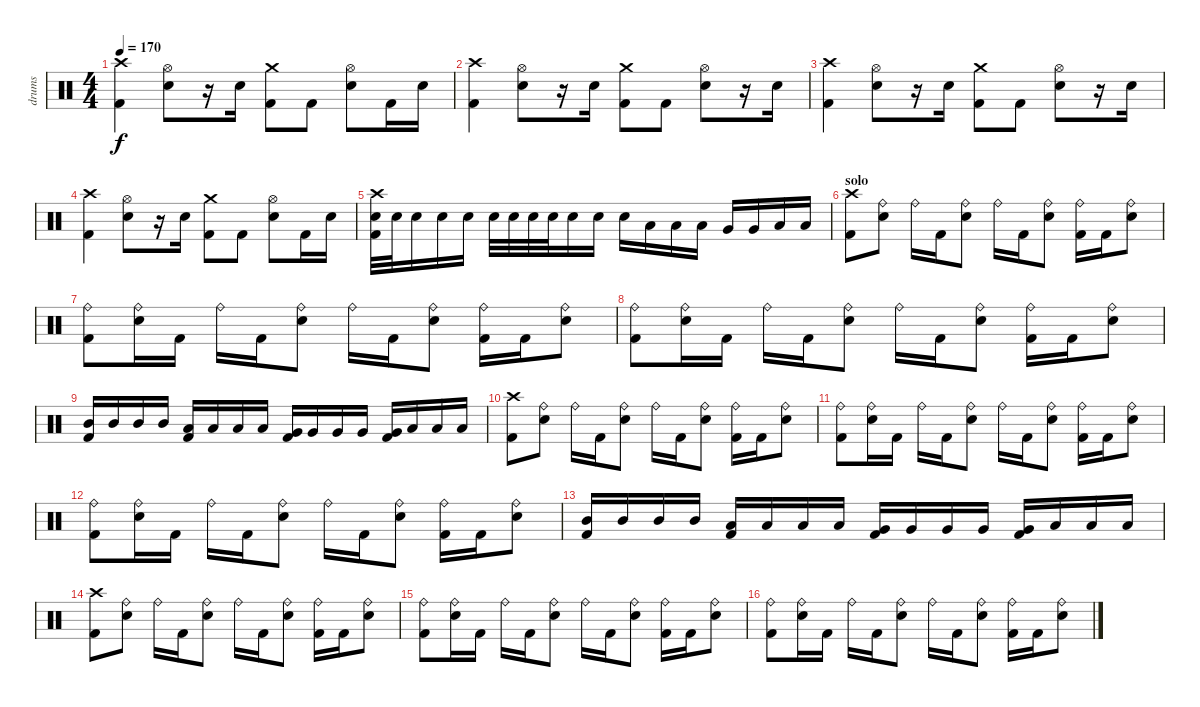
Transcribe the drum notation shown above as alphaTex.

\track ("drums" "drums") {instrument percussion}
\staff {score}
\articulation defaults
\ts (4 4)
\tempo 170
\clef neutral
\ks c
("Crash high (hit)" "Kick (hit) 2").4{dy f} ("Hi-Hat (open)" "Electric Snare (hit)").8 r.16 "Electric Snare (hit)".16 ("Crash medium (hit)" "Kick (hit) 2").8 "Kick (hit) 2".8 ("Hi-Hat (open)" "Electric Snare (hit)").8 "Kick (hit) 2".16 "Electric Snare (hit)".16 |
("Crash high (hit)" "Kick (hit) 2").4 ("Hi-Hat (open)" "Electric Snare (hit)").8 r.16 "Electric Snare (hit)".16 ("Crash medium (hit)" "Kick (hit) 2").8 "Kick (hit) 2".8 ("Hi-Hat (open)" "Electric Snare (hit)").8 r.16 "Electric Snare (hit)".16 |
("Crash high (hit)" "Kick (hit) 2").4 ("Hi-Hat (open)" "Electric Snare (hit)").8 r.16 "Electric Snare (hit)".16 ("Crash medium (hit)" "Kick (hit) 2").8 "Kick (hit) 2".8 ("Hi-Hat (open)" "Electric Snare (hit)").8 r.16 "Electric Snare (hit)".16 |
("Crash high (hit)" "Kick (hit) 2").4 ("Hi-Hat (open)" "Electric Snare (hit)").8 r.16 "Electric Snare (hit)".16 ("Crash medium (hit)" "Kick (hit) 2").8 "Kick (hit) 2".8 ("Hi-Hat (open)" "Electric Snare (hit)").8 "Kick (hit) 2".16 "Electric Snare (hit)".16 |
("Crash high (hit)" "Electric Snare (hit)" "Kick (hit) 2").32 "Electric Snare (hit)".32 "Electric Snare (hit)".16 "Electric Snare (hit)".16 "Electric Snare (hit)".16 "Electric Snare (hit)".32 "Electric Snare (hit)".32 "Electric Snare (hit)".32 "Electric Snare (hit)".32 "Electric Snare (hit)".16 "Electric Snare (hit)".16 "Electric Snare (hit)".16 "Low Tom (hit)".16 "Low Tom (hit)".16 "Low Tom (hit)".16 "Very Low Tom (hit)".16 "Very Low Tom (hit)".16 "Low Floor Tom (hit)".16 "Low Floor Tom (hit)".16 |
\section ("" "solo")
("Crash high (hit)" "Kick (hit) 2").8 ("Ride (bell)" "Electric Snare (hit)").8 "Ride (bell)".16 "Kick (hit) 2".16 ("Ride (bell)" "Electric Snare (hit)").8 "Ride (bell)".16 "Kick (hit) 2".16 ("Ride (bell)" "Electric Snare (hit)").8 ("Ride (bell)" "Kick (hit) 2").16 "Kick (hit) 2".16 ("Ride (bell)" "Electric Snare (hit)").8 |
("Ride (bell)" "Kick (hit) 2").8 ("Ride (bell)" "Electric Snare (hit)").16 "Kick (hit) 2".16 "Ride (bell)".16 "Kick (hit) 2".16 ("Ride (bell)" "Electric Snare (hit)").8 "Ride (bell)".16 "Kick (hit) 2".16 ("Ride (bell)" "Electric Snare (hit)").8 ("Ride (bell)" "Kick (hit) 2").16 "Kick (hit) 2".16 ("Ride (bell)" "Electric Snare (hit)").8 |
("Ride (bell)" "Kick (hit) 2").8 ("Ride (bell)" "Electric Snare (hit)").16 "Kick (hit) 2".16 "Ride (bell)".16 "Kick (hit) 2".16 ("Ride (bell)" "Electric Snare (hit)").8 "Ride (bell)".16 "Kick (hit) 2".16 ("Ride (bell)" "Electric Snare (hit)").8 ("Ride (bell)" "Kick (hit) 2").16 "Kick (hit) 2".16 ("Ride (bell)" "Electric Snare (hit)").8 |
("Mid Tom (hit)" "Kick (hit) 2").16 "Mid Tom (hit)".16 "Mid Tom (hit)".16 "Mid Tom (hit)".16 ("Low Tom (hit)" "Kick (hit) 2").16 "Low Tom (hit)".16 "Low Tom (hit)".16 "Low Tom (hit)".16 ("Very Low Tom (hit)" "Kick (hit) 2").16 "Very Low Tom (hit)".16 "Very Low Tom (hit)".16 "Very Low Tom (hit)".16 ("Very Low Tom (hit)" "Kick (hit) 2").16 "Low Floor Tom (hit)".16 "Low Floor Tom (hit)".16 "Low Floor Tom (hit)".16 |
("Crash high (hit)" "Kick (hit) 2").8 ("Ride (bell)" "Electric Snare (hit)").8 "Ride (bell)".16 "Kick (hit) 2".16 ("Ride (bell)" "Electric Snare (hit)").8 "Ride (bell)".16 "Kick (hit) 2".16 ("Ride (bell)" "Electric Snare (hit)").8 ("Ride (bell)" "Kick (hit) 2").16 "Kick (hit) 2".16 ("Ride (bell)" "Electric Snare (hit)").8 |
("Ride (bell)" "Kick (hit) 2").8 ("Ride (bell)" "Electric Snare (hit)").16 "Kick (hit) 2".16 "Ride (bell)".16 "Kick (hit) 2".16 ("Ride (bell)" "Electric Snare (hit)").8 "Ride (bell)".16 "Kick (hit) 2".16 ("Ride (bell)" "Electric Snare (hit)").8 ("Ride (bell)" "Kick (hit) 2").16 "Kick (hit) 2".16 ("Ride (bell)" "Electric Snare (hit)").8 |
("Ride (bell)" "Kick (hit) 2").8 ("Ride (bell)" "Electric Snare (hit)").16 "Kick (hit) 2".16 "Ride (bell)".16 "Kick (hit) 2".16 ("Ride (bell)" "Electric Snare (hit)").8 "Ride (bell)".16 "Kick (hit) 2".16 ("Ride (bell)" "Electric Snare (hit)").8 ("Ride (bell)" "Kick (hit) 2").16 "Kick (hit) 2".16 ("Ride (bell)" "Electric Snare (hit)").8 |
("Mid Tom (hit)" "Kick (hit) 2").16 "Mid Tom (hit)".16 "Mid Tom (hit)".16 "Mid Tom (hit)".16 ("Low Tom (hit)" "Kick (hit) 2").16 "Low Tom (hit)".16 "Low Tom (hit)".16 "Low Tom (hit)".16 ("Very Low Tom (hit)" "Kick (hit) 2").16 "Very Low Tom (hit)".16 "Very Low Tom (hit)".16 "Very Low Tom (hit)".16 ("Very Low Tom (hit)" "Kick (hit) 2").16 "Low Floor Tom (hit)".16 "Low Floor Tom (hit)".16 "Low Floor Tom (hit)".16 |
("Crash high (hit)" "Kick (hit) 2").8 ("Ride (bell)" "Electric Snare (hit)").8 "Ride (bell)".16 "Kick (hit) 2".16 ("Ride (bell)" "Electric Snare (hit)").8 "Ride (bell)".16 "Kick (hit) 2".16 ("Ride (bell)" "Electric Snare (hit)").8 ("Ride (bell)" "Kick (hit) 2").16 "Kick (hit) 2".16 ("Ride (bell)" "Electric Snare (hit)").8 |
("Ride (bell)" "Kick (hit) 2").8 ("Ride (bell)" "Electric Snare (hit)").16 "Kick (hit) 2".16 "Ride (bell)".16 "Kick (hit) 2".16 ("Ride (bell)" "Electric Snare (hit)").8 "Ride (bell)".16 "Kick (hit) 2".16 ("Ride (bell)" "Electric Snare (hit)").8 ("Ride (bell)" "Kick (hit) 2").16 "Kick (hit) 2".16 ("Ride (bell)" "Electric Snare (hit)").8 |
("Ride (bell)" "Kick (hit) 2").8 ("Ride (bell)" "Electric Snare (hit)").16 "Kick (hit) 2".16 "Ride (bell)".16 "Kick (hit) 2".16 ("Ride (bell)" "Electric Snare (hit)").8 "Ride (bell)".16 "Kick (hit) 2".16 ("Ride (bell)" "Electric Snare (hit)").8 ("Ride (bell)" "Kick (hit) 2").16 "Kick (hit) 2".16 ("Ride (bell)" "Electric Snare (hit)").8
